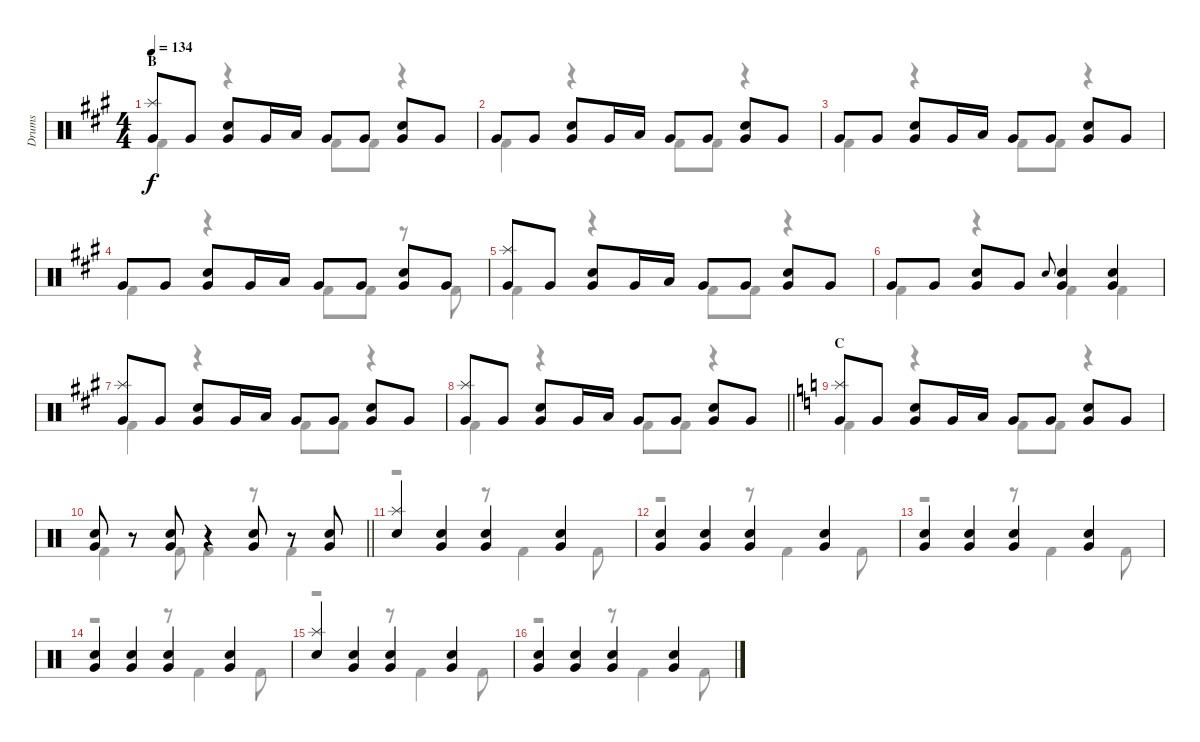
\track ("Drums" "Drums") {instrument percussion}
\staff {score}
\articulation defaults
\voice
\ts (4 4)
\section ("" "B")
\tempo 134
\clef neutral
\ks a
("Splash (hit)" "Very Low Tom (hit)").8{dy f} "Very Low Tom (hit)".8 ("Very Low Tom (hit)" "Snare (hit) 2").8 "Very Low Tom (hit)".16 "Low Tom (hit)".16 "Very Low Tom (hit)".8 "Very Low Tom (hit)".8 ("Very Low Tom (hit)" "Snare (hit) 2").8 "Very Low Tom (hit)".8 |
"Very Low Tom (hit)".8 "Very Low Tom (hit)".8 ("Very Low Tom (hit)" "Snare (hit) 2").8 "Very Low Tom (hit)".16 "Low Tom (hit)".16 "Very Low Tom (hit)".8 "Very Low Tom (hit)".8 ("Very Low Tom (hit)" "Snare (hit) 2").8 "Very Low Tom (hit)".8 |
"Very Low Tom (hit)".8 "Very Low Tom (hit)".8 ("Very Low Tom (hit)" "Snare (hit) 2").8 "Very Low Tom (hit)".16 "Low Tom (hit)".16 "Very Low Tom (hit)".8 "Very Low Tom (hit)".8 ("Very Low Tom (hit)" "Snare (hit) 2").8 "Very Low Tom (hit)".8 |
"Very Low Tom (hit)".8 "Very Low Tom (hit)".8 ("Very Low Tom (hit)" "Snare (hit) 2").8 "Very Low Tom (hit)".16 "Low Tom (hit)".16 "Very Low Tom (hit)".8 "Very Low Tom (hit)".8 ("Very Low Tom (hit)" "Snare (hit) 2").8 "Very Low Tom (hit)".8 |
("Splash (hit)" "Very Low Tom (hit)").8 "Very Low Tom (hit)".8 ("Very Low Tom (hit)" "Snare (hit) 2").8 "Very Low Tom (hit)".16 "Low Tom (hit)".16 "Very Low Tom (hit)".8 "Very Low Tom (hit)".8 ("Very Low Tom (hit)" "Snare (hit) 2").8 "Very Low Tom (hit)".8 |
"Very Low Tom (hit)".8 "Very Low Tom (hit)".8 ("Very Low Tom (hit)" "Snare (hit) 2").8 "Very Low Tom (hit)".8 "Snare (hit) 2".8{gr onbeat} ("Very Low Tom (hit)" "Snare (hit) 2").4 ("Very Low Tom (hit)" "Snare (hit) 2").4 |
("Splash (hit)" "Very Low Tom (hit)").8 "Very Low Tom (hit)".8 ("Very Low Tom (hit)" "Snare (hit) 2").8 "Very Low Tom (hit)".16 "Low Tom (hit)".16 "Very Low Tom (hit)".8 "Very Low Tom (hit)".8 ("Very Low Tom (hit)" "Snare (hit) 2").8 "Very Low Tom (hit)".8 |
\barLineRight lightlight
("Splash (hit)" "Very Low Tom (hit)").8 "Very Low Tom (hit)".8 ("Very Low Tom (hit)" "Snare (hit) 2").8 "Very Low Tom (hit)".16 "Low Tom (hit)".16 "Very Low Tom (hit)".8 "Very Low Tom (hit)".8 ("Very Low Tom (hit)" "Snare (hit) 2").8 "Very Low Tom (hit)".8 |
\section ("" "C")
\ks c
("Splash (hit)" "Very Low Tom (hit)").8 "Very Low Tom (hit)".8 ("Very Low Tom (hit)" "Snare (hit) 2").8 "Very Low Tom (hit)".16 "Low Tom (hit)".16 "Very Low Tom (hit)".8 "Very Low Tom (hit)".8 ("Very Low Tom (hit)" "Snare (hit) 2").8 "Very Low Tom (hit)".8 |
\barLineRight lightlight
("Very Low Tom (hit)" "Snare (hit) 2").8 r.8 ("Very Low Tom (hit)" "Snare (hit) 2").8 r.4 ("Very Low Tom (hit)" "Snare (hit) 2").8 r.8 ("Very Low Tom (hit)" "Snare (hit) 2").8 |
("Splash (hit)" "Snare (hit) 2").4 ("Snare (hit) 2" "Very Low Tom (hit)").4 ("Snare (hit) 2" "Very Low Tom (hit)").4 ("Snare (hit) 2" "Very Low Tom (hit)").4 |
("Snare (hit) 2" "Very Low Tom (hit)").4 ("Snare (hit) 2" "Very Low Tom (hit)").4 ("Snare (hit) 2" "Very Low Tom (hit)").4 ("Snare (hit) 2" "Very Low Tom (hit)").4 |
("Snare (hit) 2" "Very Low Tom (hit)").4 ("Snare (hit) 2" "Very Low Tom (hit)").4 ("Snare (hit) 2" "Very Low Tom (hit)").4 ("Snare (hit) 2" "Very Low Tom (hit)").4 |
("Snare (hit) 2" "Very Low Tom (hit)").4 ("Snare (hit) 2" "Very Low Tom (hit)").4 ("Snare (hit) 2" "Very Low Tom (hit)").4 ("Snare (hit) 2" "Very Low Tom (hit)").4 |
("Splash (hit)" "Snare (hit) 2").4 ("Snare (hit) 2" "Very Low Tom (hit)").4 ("Snare (hit) 2" "Very Low Tom (hit)").4 ("Snare (hit) 2" "Very Low Tom (hit)").4 |
("Snare (hit) 2" "Very Low Tom (hit)").4 ("Snare (hit) 2" "Very Low Tom (hit)").4 ("Snare (hit) 2" "Very Low Tom (hit)").4 ("Snare (hit) 2" "Very Low Tom (hit)").4
\voice
\clef neutral
\ottava regular
\simile none
\ks a "Kick (hit) 2".4{dy f}
r.4 "Kick (hit) 2".8 "Kick (hit) 2".8 r.4 |
"Kick (hit) 2".4 r.4 "Kick (hit) 2".8 "Kick (hit) 2".8 r.4 |
"Kick (hit) 2".4 r.4 "Kick (hit) 2".8 "Kick (hit) 2".8 r.4 |
"Kick (hit) 2".4 r.4 "Kick (hit) 2".8 "Kick (hit) 2".8 r.8 "Kick (hit) 2".8 |
"Kick (hit) 2".4 r.4 "Kick (hit) 2".8 "Kick (hit) 2".8 r.4 |
"Kick (hit) 2".4 r.4 "Kick (hit) 2".4 "Kick (hit) 2".4 |
"Kick (hit) 2".4 r.4 "Kick (hit) 2".8 "Kick (hit) 2".8 r.4 |
\barLineRight lightlight "Kick (hit) 2".4
r.4 "Kick (hit) 2".8 "Kick (hit) 2".8 r.4 |
\ks c "Kick (hit) 2".4
r.4 "Kick (hit) 2".8 "Kick (hit) 2".8 r.4 |
\barLineRight lightlight "Kick (hit) 2".4 "Kick (hit) 2".8 "Kick (hit) 2".4
r.8 "Kick (hit) 2".4 |
r.2 r.8 "Kick (hit) 2".4 "Kick (hit) 2".8 |
r.2 r.8 "Kick (hit) 2".4 "Kick (hit) 2".8 |
r.2 r.8 "Kick (hit) 2".4 "Kick (hit) 2".8 |
r.2 r.8 "Kick (hit) 2".4 "Kick (hit) 2".8 |
r.2 r.8 "Kick (hit) 2".4 "Kick (hit) 2".8 |
r.2 r.8 "Kick (hit) 2".4 "Kick (hit) 2".8
